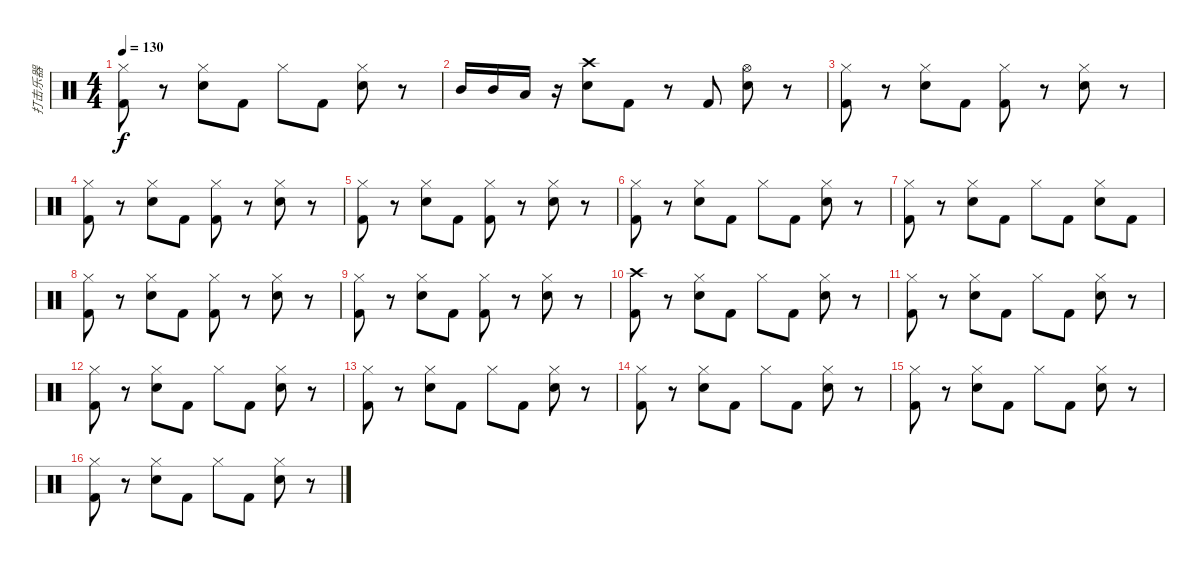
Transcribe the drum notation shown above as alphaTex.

\track ("打击乐器" "打击乐器") {instrument percussion}
\staff {score}
\articulation defaults
\ts (4 4)
\tempo 130
\clef neutral
\ks c
("Hi-Hat (closed)" "Kick (hit) 2").8{dy f} r.8 ("Hi-Hat (closed)" "Electric Snare (hit)").8 "Kick (hit) 2".8 "Hi-Hat (closed)".8 "Kick (hit) 2".8 ("Hi-Hat (closed)" "Electric Snare (hit)").8 r.8 |
"Mid Tom (hit)".16 "Mid Tom (hit)".16 "Low Tom (hit)".16 r.16 ("Crash high (hit)" "Electric Snare (hit)").8 "Kick (hit) 2".8 r.8 "Kick (hit) 2".8 ("Hi-Hat (open)" "Electric Snare (hit)").8 r.8 |
("Hi-Hat (closed)" "Kick (hit) 2").8 r.8 ("Hi-Hat (closed)" "Electric Snare (hit)").8 "Kick (hit) 2".8 ("Hi-Hat (closed)" "Kick (hit) 2").8 r.8 ("Hi-Hat (closed)" "Electric Snare (hit)").8 r.8 |
("Hi-Hat (closed)" "Kick (hit) 2").8 r.8 ("Hi-Hat (closed)" "Electric Snare (hit)").8 "Kick (hit) 2".8 ("Hi-Hat (closed)" "Kick (hit) 2").8 r.8 ("Hi-Hat (closed)" "Electric Snare (hit)").8 r.8 |
("Hi-Hat (closed)" "Kick (hit) 2").8 r.8 ("Hi-Hat (closed)" "Electric Snare (hit)").8 "Kick (hit) 2".8 ("Hi-Hat (closed)" "Kick (hit) 2").8 r.8 ("Hi-Hat (closed)" "Electric Snare (hit)").8 r.8 |
("Hi-Hat (closed)" "Kick (hit) 2").8 r.8 ("Hi-Hat (closed)" "Electric Snare (hit)").8 "Kick (hit) 2".8 "Hi-Hat (closed)".8 "Kick (hit) 2".8 ("Hi-Hat (closed)" "Electric Snare (hit)").8 r.8 |
("Hi-Hat (closed)" "Kick (hit) 2").8 r.8 ("Hi-Hat (closed)" "Electric Snare (hit)").8 "Kick (hit) 2".8 "Hi-Hat (closed)".8 "Kick (hit) 2".8 ("Hi-Hat (closed)" "Electric Snare (hit)").8 "Kick (hit) 2".8 |
("Hi-Hat (closed)" "Kick (hit) 2").8 r.8 ("Hi-Hat (closed)" "Electric Snare (hit)").8 "Kick (hit) 2".8 ("Hi-Hat (closed)" "Kick (hit) 2").8 r.8 ("Hi-Hat (closed)" "Electric Snare (hit)").8 r.8 |
("Hi-Hat (closed)" "Kick (hit) 2").8 r.8 ("Hi-Hat (closed)" "Electric Snare (hit)").8 "Kick (hit) 2".8 ("Hi-Hat (closed)" "Kick (hit) 2").8 r.8 ("Hi-Hat (closed)" "Electric Snare (hit)").8 r.8 |
("Crash high (hit)" "Kick (hit) 2").8 r.8 ("Hi-Hat (closed)" "Electric Snare (hit)").8 "Kick (hit) 2".8 "Hi-Hat (closed)".8 "Kick (hit) 2".8 ("Hi-Hat (closed)" "Electric Snare (hit)").8 r.8 |
("Hi-Hat (closed)" "Kick (hit) 2").8 r.8 ("Hi-Hat (closed)" "Electric Snare (hit)").8 "Kick (hit) 2".8 "Hi-Hat (closed)".8 "Kick (hit) 2".8 ("Hi-Hat (closed)" "Electric Snare (hit)").8 r.8 |
("Hi-Hat (closed)" "Kick (hit) 2").8 r.8 ("Hi-Hat (closed)" "Electric Snare (hit)").8 "Kick (hit) 2".8 "Hi-Hat (closed)".8 "Kick (hit) 2".8 ("Hi-Hat (closed)" "Electric Snare (hit)").8 r.8 |
("Hi-Hat (closed)" "Kick (hit) 2").8 r.8 ("Hi-Hat (closed)" "Electric Snare (hit)").8 "Kick (hit) 2".8 "Hi-Hat (closed)".8 "Kick (hit) 2".8 ("Hi-Hat (closed)" "Electric Snare (hit)").8 r.8 |
("Hi-Hat (closed)" "Kick (hit) 2").8 r.8 ("Hi-Hat (closed)" "Electric Snare (hit)").8 "Kick (hit) 2".8 "Hi-Hat (closed)".8 "Kick (hit) 2".8 ("Hi-Hat (closed)" "Electric Snare (hit)").8 r.8 |
("Hi-Hat (closed)" "Kick (hit) 2").8 r.8 ("Hi-Hat (closed)" "Electric Snare (hit)").8 "Kick (hit) 2".8 "Hi-Hat (closed)".8 "Kick (hit) 2".8 ("Hi-Hat (closed)" "Electric Snare (hit)").8 r.8 |
("Hi-Hat (closed)" "Kick (hit) 2").8 r.8 ("Hi-Hat (closed)" "Electric Snare (hit)").8 "Kick (hit) 2".8 "Hi-Hat (closed)".8 "Kick (hit) 2".8 ("Hi-Hat (closed)" "Electric Snare (hit)").8 r.8
